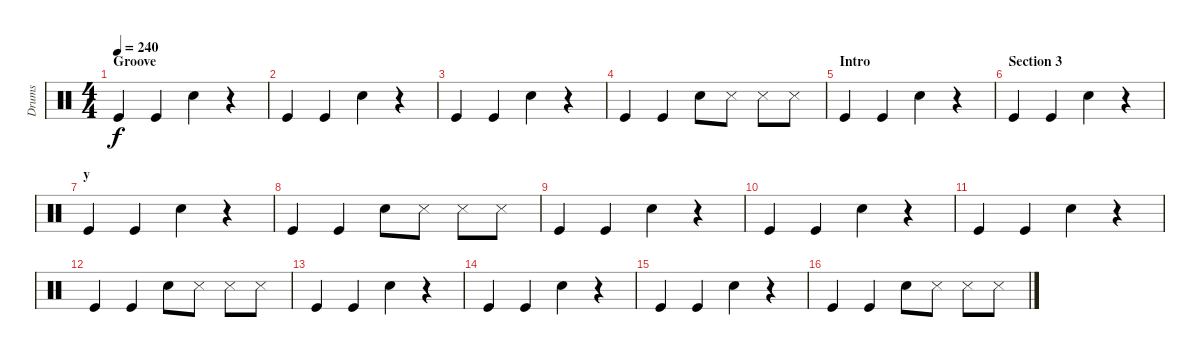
\track ("Drums" "Drums") {instrument percussion}
\staff {score}
\articulation defaults
\ts (4 4)
\section ("" "Groove")
\tempo 240
\clef neutral
\ks c "Kick (hit)".4{dy f} "Kick (hit)".4 "Snare (hit) 2".4
r.4 |
"Kick (hit)".4 "Kick (hit)".4 "Snare (hit) 2".4 r.4 |
"Kick (hit)".4 "Kick (hit)".4 "Snare (hit) 2".4 r.4 |
"Kick (hit)".4 "Kick (hit)".4 "Snare (hit) 2".8 "Snare (side stick) 3".8 "Snare (side stick) 3".8 "Snare (side stick) 3".8 |
\section ("" "Intro")
"Kick (hit)".4 "Kick (hit)".4 "Snare (hit) 2".4 r.4 |
\section ("" "Section 3")
"Kick (hit)".4 "Kick (hit)".4 "Snare (hit) 2".4 r.4 |
\section ("" "y")
"Kick (hit)".4 "Kick (hit)".4 "Snare (hit) 2".4 r.4 |
"Kick (hit)".4 "Kick (hit)".4 "Snare (hit) 2".8 "Snare (side stick) 3".8 "Snare (side stick) 3".8 "Snare (side stick) 3".8 |
"Kick (hit)".4 "Kick (hit)".4 "Snare (hit) 2".4 r.4 |
"Kick (hit)".4 "Kick (hit)".4 "Snare (hit) 2".4 r.4 |
"Kick (hit)".4 "Kick (hit)".4 "Snare (hit) 2".4 r.4 |
"Kick (hit)".4 "Kick (hit)".4 "Snare (hit) 2".8 "Snare (side stick) 3".8 "Snare (side stick) 3".8 "Snare (side stick) 3".8 |
"Kick (hit)".4 "Kick (hit)".4 "Snare (hit) 2".4 r.4 |
"Kick (hit)".4 "Kick (hit)".4 "Snare (hit) 2".4 r.4 |
"Kick (hit)".4 "Kick (hit)".4 "Snare (hit) 2".4 r.4 |
"Kick (hit)".4 "Kick (hit)".4 "Snare (hit) 2".8 "Snare (side stick) 3".8 "Snare (side stick) 3".8 "Snare (side stick) 3".8
